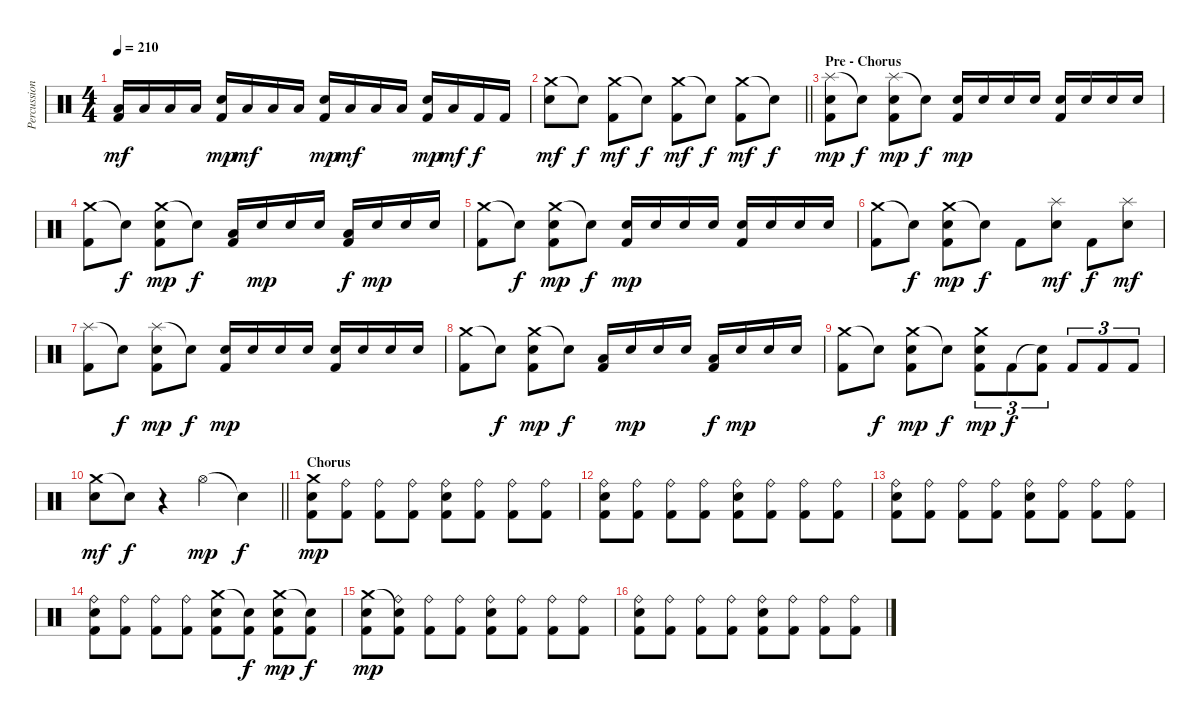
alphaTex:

\track ("Percussion" "Percussion") {instrument percussion}
\staff {score}
\articulation defaults
\ts (4 4)
\tempo 210
\clef neutral
\ks c
("Low Tom (hit)" "Kick (hit) 2").16{dy mf} "Low Tom (hit)".16 "Low Tom (hit)".16 "Low Tom (hit)".16 ("Electric Snare (hit)" "Kick (hit) 2").16{dy mp} "Low Tom (hit)".16{dy mf} "Low Tom (hit)".16 "Low Tom (hit)".16 ("Electric Snare (hit)" "Kick (hit) 2").16{dy mp} "Low Tom (hit)".16{dy mf} "Low Tom (hit)".16 "Low Tom (hit)".16 ("Electric Snare (hit)" "Kick (hit) 2").16{dy mp} "Low Tom (hit)".16{dy mf} "Kick (hit) 2".16{dy f} "Kick (hit) 2".16 |
\barLineRight lightlight
("Crash medium (hit)" "Electric Snare (hit)").8{dy mf} "Snare (hit)"{t}.8{dy f} ("Crash medium (hit)" "Kick (hit) 2").8{dy mf} "Snare (hit)"{t}.8{dy f} ("Crash medium (hit)" "Kick (hit) 2").8{dy mf} "Snare (hit)"{t}.8{dy f} ("Crash medium (hit)" "Kick (hit) 2").8{dy mf} "Snare (hit)"{t}.8{dy f} |
\section ("" "Pre - Chorus")
("Splash (hit)" "Electric Snare (hit)" "Kick (hit) 2").8{dy mp} "Snare (hit)"{t}.8{dy f} ("Splash (hit)" "Electric Snare (hit)" "Kick (hit) 2").8{dy mp} "Snare (hit)"{t}.8{dy f} ("Electric Snare (hit)" "Kick (hit) 2").16{dy mp} "Electric Snare (hit)".16 "Electric Snare (hit)".16 "Electric Snare (hit)".16 ("Electric Snare (hit)" "Kick (hit) 2").16 "Electric Snare (hit)".16 "Electric Snare (hit)".16 "Electric Snare (hit)".16 |
("Crash medium (hit)" "Kick (hit) 2").8 "Snare (hit)"{t}.8{dy f} ("Crash medium (hit)" "Electric Snare (hit)" "Kick (hit) 2").8{dy mp} "Snare (hit)"{t}.8{dy f} ("Low Tom (hit)" "Kick (hit) 2").16 "Electric Snare (hit)".16{dy mp} "Electric Snare (hit)".16 "Electric Snare (hit)".16 ("Low Tom (hit)" "Kick (hit) 2").16{dy f} "Electric Snare (hit)".16{dy mp} "Electric Snare (hit)".16 "Electric Snare (hit)".16 |
("Crash medium (hit)" "Kick (hit) 2").8 "Snare (hit)"{t}.8{dy f} ("Crash medium (hit)" "Electric Snare (hit)" "Kick (hit) 2").8{dy mp} "Snare (hit)"{t}.8{dy f} ("Electric Snare (hit)" "Kick (hit) 2").16{dy mp} "Electric Snare (hit)".16 "Electric Snare (hit)".16 "Electric Snare (hit)".16 ("Electric Snare (hit)" "Kick (hit) 2").16 "Electric Snare (hit)".16 "Electric Snare (hit)".16 "Electric Snare (hit)".16 |
("Crash medium (hit)" "Kick (hit) 2").8 "Snare (hit)"{t}.8{dy f} ("Crash medium (hit)" "Electric Snare (hit)" "Kick (hit) 2").8{dy mp} "Snare (hit)"{t}.8{dy f} "Kick (hit) 2".8 ("Splash (hit)" "Electric Snare (hit)").8{dy mf} "Kick (hit) 2".8{dy f} ("Splash (hit)" "Electric Snare (hit)").8{dy mf} |
("Splash (hit)" "Kick (hit) 2").8 "Snare (hit)"{t}.8{dy f} ("Splash (hit)" "Electric Snare (hit)" "Kick (hit) 2").8{dy mp} "Snare (hit)"{t}.8{dy f} ("Electric Snare (hit)" "Kick (hit) 2").16{dy mp} "Electric Snare (hit)".16 "Electric Snare (hit)".16 "Electric Snare (hit)".16 ("Electric Snare (hit)" "Kick (hit) 2").16 "Electric Snare (hit)".16 "Electric Snare (hit)".16 "Electric Snare (hit)".16 |
("Crash medium (hit)" "Kick (hit) 2").8 "Snare (hit)"{t}.8{dy f} ("Crash medium (hit)" "Electric Snare (hit)" "Kick (hit) 2").8{dy mp} "Snare (hit)"{t}.8{dy f} ("Low Tom (hit)" "Kick (hit) 2").16 "Electric Snare (hit)".16{dy mp} "Electric Snare (hit)".16 "Electric Snare (hit)".16 ("Low Tom (hit)" "Kick (hit) 2").16{dy f} "Electric Snare (hit)".16{dy mp} "Electric Snare (hit)".16 "Electric Snare (hit)".16 |
("Crash medium (hit)" "Kick (hit) 2").8 "Snare (hit)"{t}.8{dy f} ("Crash medium (hit)" "Electric Snare (hit)" "Kick (hit) 2").8{dy mp} "Snare (hit)"{t}.8{dy f} ("Crash medium (hit)" "Electric Snare (hit)" "Kick (hit) 2").8{tu (3 2) dy mp} "Kick (hit) 2".8{tu (3 2) dy f} ("Snare (hit)"{t} "Kick (hit) 2").8{tu (3 2)} "Kick (hit) 2".8{tu (3 2)} "Kick (hit) 2".8{tu (3 2)} "Kick (hit) 2".8{tu (3 2)} |
\barLineRight lightlight
("Crash medium (hit)" "Electric Snare (hit)").8{dy mf} "Snare (hit)"{t}.8{dy f} r.4 "Hi-Hat (open)".4{dy mp} "Snare (hit)"{t}.4{dy f} |
\section ("" "Chorus")
("Crash medium (hit)" "Electric Snare (hit)" "Kick (hit) 2").8{dy mp} ("Ride (bell)" "Kick (hit) 2").8 ("Ride (bell)" "Kick (hit) 2").8 ("Ride (bell)" "Kick (hit) 2").8 ("Ride (bell)" "Electric Snare (hit)" "Kick (hit) 2").8 ("Ride (bell)" "Kick (hit) 2").8 ("Ride (bell)" "Kick (hit) 2").8 ("Ride (bell)" "Kick (hit) 2").8 |
("Ride (bell)" "Electric Snare (hit)" "Kick (hit) 2").8 ("Ride (bell)" "Kick (hit) 2").8 ("Ride (bell)" "Kick (hit) 2").8 ("Ride (bell)" "Kick (hit) 2").8 ("Ride (bell)" "Electric Snare (hit)" "Kick (hit) 2").8 ("Ride (bell)" "Kick (hit) 2").8 ("Ride (bell)" "Kick (hit) 2").8 ("Ride (bell)" "Kick (hit) 2").8 |
("Ride (bell)" "Electric Snare (hit)" "Kick (hit) 2").8 ("Ride (bell)" "Kick (hit) 2").8 ("Ride (bell)" "Kick (hit) 2").8 ("Ride (bell)" "Kick (hit) 2").8 ("Ride (bell)" "Electric Snare (hit)" "Kick (hit) 2").8 ("Ride (bell)" "Kick (hit) 2").8 ("Ride (bell)" "Kick (hit) 2").8 ("Ride (bell)" "Kick (hit) 2").8 |
("Ride (bell)" "Electric Snare (hit)" "Kick (hit) 2").8 ("Ride (bell)" "Kick (hit) 2").8 ("Ride (bell)" "Kick (hit) 2").8 ("Ride (bell)" "Kick (hit) 2").8 ("Crash medium (hit)" "Electric Snare (hit)" "Kick (hit) 2").8 ("Snare (hit)"{t} "Kick (hit) 2").8{dy f} ("Crash medium (hit)" "Electric Snare (hit)" "Kick (hit) 2").8{dy mp} ("Snare (hit)"{t} "Kick (hit) 2").8{dy f} |
("Crash medium (hit)" "Electric Snare (hit)" "Kick (hit) 2").8{dy mp} ("Snare (hit)"{t} "Ride (bell)" "Kick (hit) 2").8 ("Ride (bell)" "Kick (hit) 2").8 ("Ride (bell)" "Kick (hit) 2").8 ("Ride (bell)" "Electric Snare (hit)" "Kick (hit) 2").8 ("Ride (bell)" "Kick (hit) 2").8 ("Ride (bell)" "Kick (hit) 2").8 ("Ride (bell)" "Kick (hit) 2").8 |
("Ride (bell)" "Electric Snare (hit)" "Kick (hit) 2").8 ("Ride (bell)" "Kick (hit) 2").8 ("Ride (bell)" "Kick (hit) 2").8 ("Ride (bell)" "Kick (hit) 2").8 ("Ride (bell)" "Electric Snare (hit)" "Kick (hit) 2").8 ("Ride (bell)" "Kick (hit) 2").8 ("Ride (bell)" "Kick (hit) 2").8 ("Ride (bell)" "Kick (hit) 2").8
